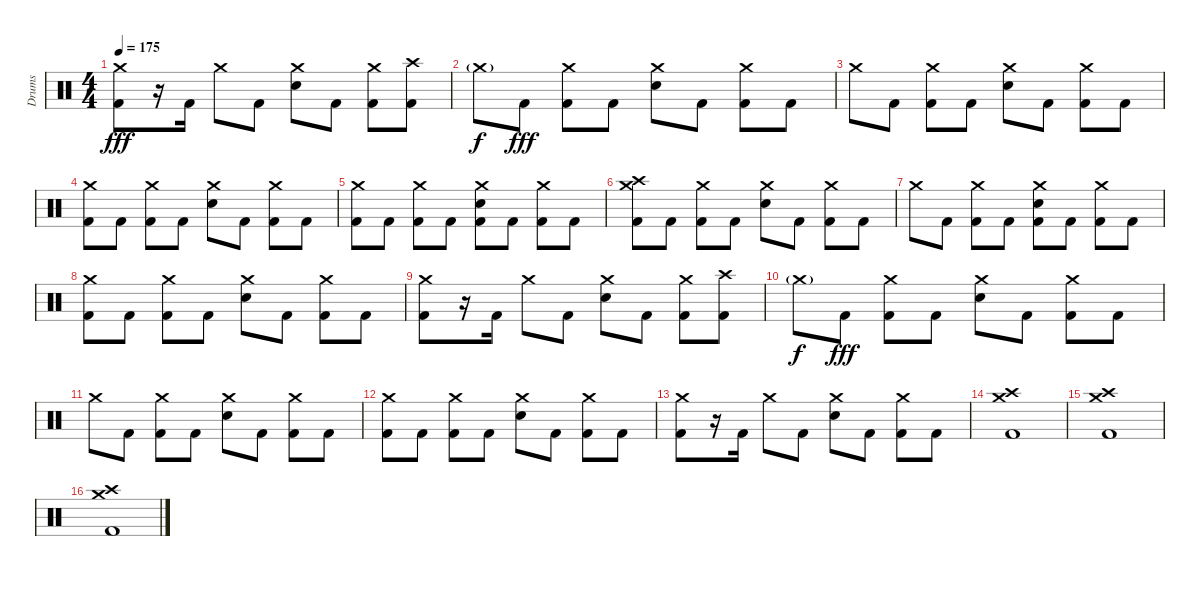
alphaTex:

\track ("Drums" "Drums") {instrument percussion}
\staff {score}
\articulation defaults
\ts (4 4)
\tempo 175
\clef neutral
\ks c
("Crash medium (hit)" "Kick (hit) 2").8{dy fff} r.16 "Kick (hit) 2".16 "Crash medium (hit)".8 "Kick (hit) 2".8 ("Crash medium (hit)" "Snare (hit) 2").8 "Kick (hit) 2".8 ("Crash medium (hit)" "Kick (hit) 2").8 ("Crash high (hit)" "Kick (hit) 2").8 |
"Crash medium (hit)"{g}.8{dy f} "Kick (hit) 2".8{dy fff} ("Crash medium (hit)" "Kick (hit) 2").8 "Kick (hit) 2".8 ("Crash medium (hit)" "Snare (hit) 2").8 "Kick (hit) 2".8 ("Crash medium (hit)" "Kick (hit) 2").8 "Kick (hit) 2".8 |
"Crash medium (hit)".8 "Kick (hit) 2".8 ("Crash medium (hit)" "Kick (hit) 2").8 "Kick (hit) 2".8 ("Crash medium (hit)" "Snare (hit) 2").8 "Kick (hit) 2".8 ("Crash medium (hit)" "Kick (hit) 2").8 "Kick (hit) 2".8 |
("Crash medium (hit)" "Kick (hit) 2").8 "Kick (hit) 2".8 ("Crash medium (hit)" "Kick (hit) 2").8 "Kick (hit) 2".8 ("Crash medium (hit)" "Snare (hit) 2").8 "Kick (hit) 2".8 ("Crash medium (hit)" "Kick (hit) 2").8 "Kick (hit) 2".8 |
("Crash medium (hit)" "Kick (hit) 2").8 "Kick (hit) 2".8 ("Crash medium (hit)" "Kick (hit) 2").8 "Kick (hit) 2".8 ("Crash medium (hit)" "Snare (hit) 2" "Kick (hit) 2").8 "Kick (hit) 2".8 ("Crash medium (hit)" "Kick (hit) 2").8 "Kick (hit) 2".8 |
("Crash high (hit)" "Crash medium (hit)" "Kick (hit) 2").8 "Kick (hit) 2".8 ("Crash medium (hit)" "Kick (hit) 2").8 "Kick (hit) 2".8 ("Crash medium (hit)" "Snare (hit) 2").8 "Kick (hit) 2".8 ("Crash medium (hit)" "Kick (hit) 2").8 "Kick (hit) 2".8 |
"Crash medium (hit)".8 "Kick (hit) 2".8 ("Crash medium (hit)" "Kick (hit) 2").8 "Kick (hit) 2".8 ("Crash medium (hit)" "Snare (hit) 2" "Kick (hit) 2").8 "Kick (hit) 2".8 ("Crash medium (hit)" "Kick (hit) 2").8 "Kick (hit) 2".8 |
("Crash medium (hit)" "Kick (hit) 2").8 "Kick (hit) 2".8 ("Crash medium (hit)" "Kick (hit) 2").8 "Kick (hit) 2".8 ("Crash medium (hit)" "Snare (hit) 2").8 "Kick (hit) 2".8 ("Crash medium (hit)" "Kick (hit) 2").8 "Kick (hit) 2".8 |
("Crash medium (hit)" "Kick (hit) 2").8 r.16 "Kick (hit) 2".16 "Crash medium (hit)".8 "Kick (hit) 2".8 ("Crash medium (hit)" "Snare (hit) 2").8 "Kick (hit) 2".8 ("Crash medium (hit)" "Kick (hit) 2").8 ("Crash high (hit)" "Kick (hit) 2").8 |
"Crash medium (hit)"{g}.8{dy f} "Kick (hit) 2".8{dy fff} ("Crash medium (hit)" "Kick (hit) 2").8 "Kick (hit) 2".8 ("Crash medium (hit)" "Snare (hit) 2").8 "Kick (hit) 2".8 ("Crash medium (hit)" "Kick (hit) 2").8 "Kick (hit) 2".8 |
"Crash medium (hit)".8 "Kick (hit) 2".8 ("Crash medium (hit)" "Kick (hit) 2").8 "Kick (hit) 2".8 ("Crash medium (hit)" "Snare (hit) 2").8 "Kick (hit) 2".8 ("Crash medium (hit)" "Kick (hit) 2").8 "Kick (hit) 2".8 |
("Crash medium (hit)" "Kick (hit) 2").8 "Kick (hit) 2".8 ("Crash medium (hit)" "Kick (hit) 2").8 "Kick (hit) 2".8 ("Crash medium (hit)" "Snare (hit) 2").8 "Kick (hit) 2".8 ("Crash medium (hit)" "Kick (hit) 2").8 "Kick (hit) 2".8 |
("Crash medium (hit)" "Kick (hit) 2").8 r.16 "Kick (hit) 2".16 "Crash medium (hit)".8 "Kick (hit) 2".8 ("Crash medium (hit)" "Snare (hit) 2").8 "Kick (hit) 2".8 ("Crash medium (hit)" "Kick (hit) 2").8 "Kick (hit) 2".8 |
("Crash medium (hit)" "Crash high (hit)" "Kick (hit) 2").1 |
("Crash medium (hit)" "Crash high (hit)" "Kick (hit) 2").1 |
("Crash medium (hit)" "Crash high (hit)" "Kick (hit) 2").1
